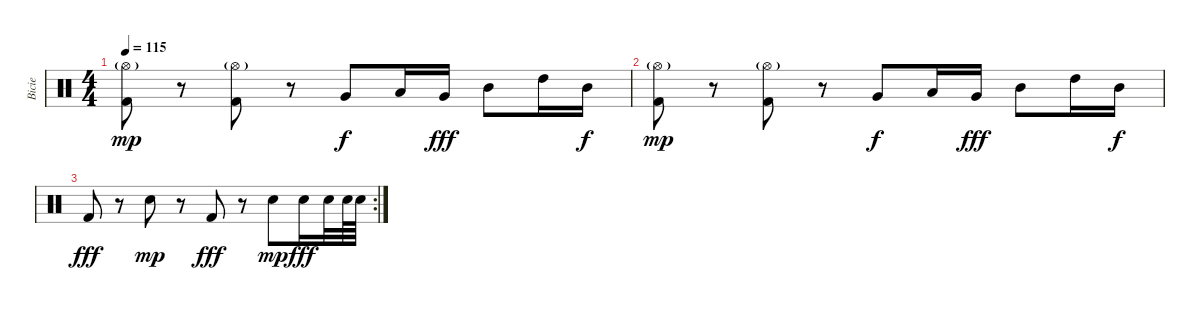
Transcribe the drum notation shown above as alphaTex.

\track ("Bicie" "Bicie") {instrument percussion}
\staff {score}
\articulation defaults
\ts (4 4)
\tempo 115
\clef neutral
\ks c
("Kick (hit) 2" "Hi-Hat (open)"{g}).8{dy mp} r.8 ("Kick (hit) 2" "Hi-Hat (open)"{g}).8 r.8 "Very Low Tom (hit)".8{dy f} "Low Floor Tom (hit)".16 "Very Low Tom (hit)".16{dy fff} "Mid Tom (hit)".8 "High Tom (hit)".16 "Mid Tom (hit)".16{dy f} |
("Kick (hit) 2" "Hi-Hat (open)"{g}).8{dy mp} r.8 ("Kick (hit) 2" "Hi-Hat (open)"{g}).8 r.8 "Very Low Tom (hit)".8{dy f} "Low Floor Tom (hit)".16 "Very Low Tom (hit)".16{dy fff} "Mid Tom (hit)".8 "High Tom (hit)".16 "Mid Tom (hit)".16{dy f} |
\rc 2 "Kick (hit) 2".8{dy fff}
r.8 "Snare (hit) 2".8{dy mp} r.8 "Kick (hit) 2".8{dy fff} r.8 "Snare (hit) 2".8{dy mp} "Snare (hit) 2".16{dy fff} "Snare (hit) 2".32 "Snare (hit) 2".64 "Snare (hit) 2".64
